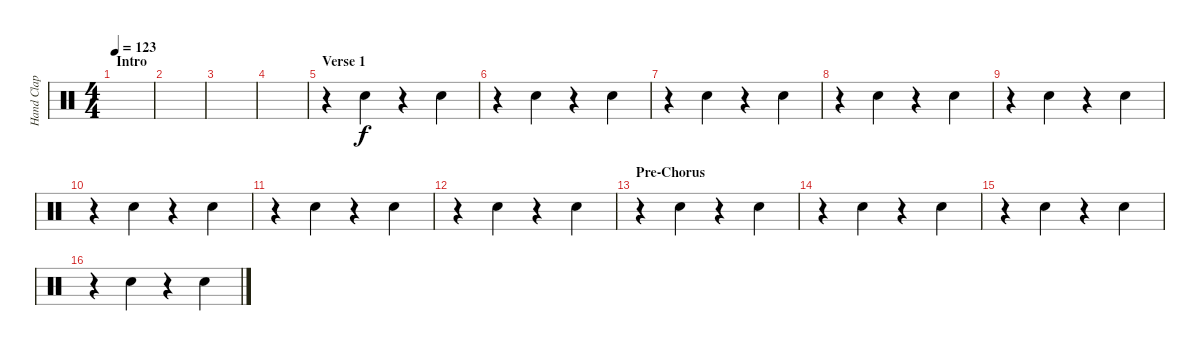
\track ("Hand Clap" "Hand Clap") {instrument percussion}
\staff {score}
\articulation defaults
\ts (4 4)
\section ("" "Intro")
\tempo 123
\clef neutral
\ks c
|
|
|
|
\section ("" "Verse 1")
r.4 "Hand Clap (hit)".4 r.4 "Hand Clap (hit)".4 |
r.4 "Hand Clap (hit)".4 r.4 "Hand Clap (hit)".4 |
r.4 "Hand Clap (hit)".4 r.4 "Hand Clap (hit)".4 |
r.4 "Hand Clap (hit)".4 r.4 "Hand Clap (hit)".4 |
r.4 "Hand Clap (hit)".4 r.4 "Hand Clap (hit)".4 |
r.4 "Hand Clap (hit)".4 r.4 "Hand Clap (hit)".4 |
r.4 "Hand Clap (hit)".4 r.4 "Hand Clap (hit)".4 |
r.4 "Hand Clap (hit)".4 r.4 "Hand Clap (hit)".4 |
\section ("" "Pre-Chorus")
r.4 "Hand Clap (hit)".4 r.4 "Hand Clap (hit)".4 |
r.4 "Hand Clap (hit)".4 r.4 "Hand Clap (hit)".4 |
r.4 "Hand Clap (hit)".4 r.4 "Hand Clap (hit)".4 |
r.4 "Hand Clap (hit)".4 r.4 "Hand Clap (hit)".4
